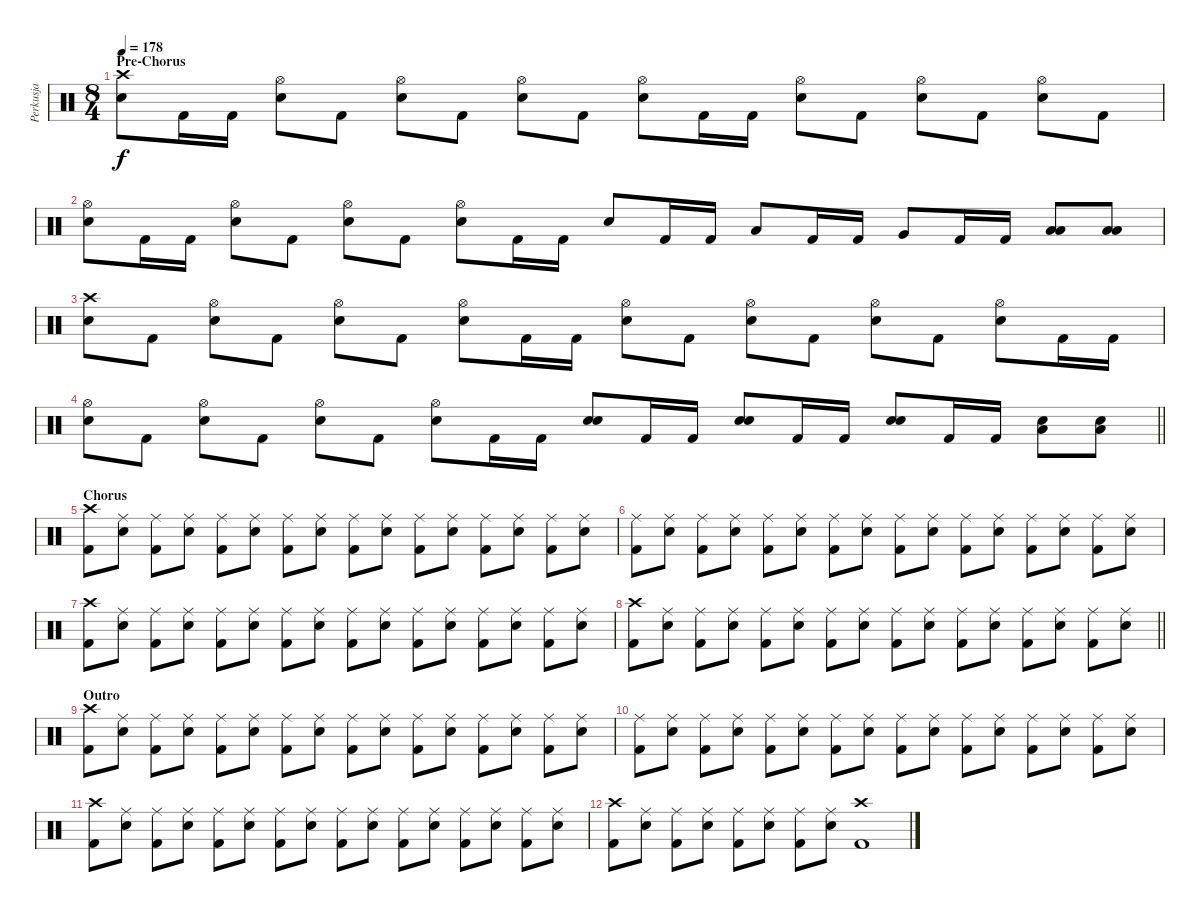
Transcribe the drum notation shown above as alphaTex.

\track ("Perkusja" "Perkusja") {instrument percussion}
\staff {score}
\articulation defaults
\ts (8 4)
\section ("" "Pre-Chorus")
\tempo 178
\clef neutral
\ks c
("Crash high (hit)" "Snare (hit) 2").8{dy f} "Kick (hit) 2".16 "Kick (hit) 2".16 ("Hi-Hat (open)" "Snare (hit) 2").8 "Kick (hit) 2".8 ("Hi-Hat (open)" "Snare (hit) 2").8 "Kick (hit) 2".8 ("Hi-Hat (open)" "Snare (hit) 2").8 "Kick (hit) 2".8 ("Hi-Hat (open)" "Snare (hit) 2").8 "Kick (hit) 2".16 "Kick (hit) 2".16 ("Hi-Hat (open)" "Snare (hit) 2").8 "Kick (hit) 2".8 ("Hi-Hat (open)" "Snare (hit) 2").8 "Kick (hit) 2".8 ("Hi-Hat (open)" "Snare (hit) 2").8 "Kick (hit) 2".8 |
("Hi-Hat (open)" "Snare (hit) 2").8 "Kick (hit) 2".16 "Kick (hit) 2".16 ("Hi-Hat (open)" "Snare (hit) 2").8 "Kick (hit) 2".8 ("Hi-Hat (open)" "Snare (hit) 2").8 "Kick (hit) 2".8 ("Hi-Hat (open)" "Snare (hit) 2").8 "Kick (hit) 2".16 "Kick (hit) 2".16 "Snare (hit) 2".8 "Kick (hit) 2".16 "Kick (hit) 2".16 "Low Tom (hit)".8 "Kick (hit) 2".16 "Kick (hit) 2".16 "Very Low Tom (hit)".8 "Kick (hit) 2".16 "Kick (hit) 2".16 ("Low Floor Tom (hit)" "Low Floor Tom (hit)").8 ("Low Floor Tom (hit)" "Low Floor Tom (hit)").8 |
("Crash high (hit)" "Snare (hit) 2").8 "Kick (hit) 2".8 ("Hi-Hat (open)" "Snare (hit) 2").8 "Kick (hit) 2".8 ("Hi-Hat (open)" "Snare (hit) 2").8 "Kick (hit) 2".8 ("Hi-Hat (open)" "Snare (hit) 2").8 "Kick (hit) 2".16 "Kick (hit) 2".16 ("Hi-Hat (open)" "Snare (hit) 2").8 "Kick (hit) 2".8 ("Hi-Hat (open)" "Snare (hit) 2").8 "Kick (hit) 2".8 ("Hi-Hat (open)" "Snare (hit) 2").8 "Kick (hit) 2".8 ("Hi-Hat (open)" "Snare (hit) 2").8 "Kick (hit) 2".16 "Kick (hit) 2".16 |
\barLineRight lightlight
("Hi-Hat (open)" "Snare (hit) 2").8 "Kick (hit) 2".8 ("Hi-Hat (open)" "Snare (hit) 2").8 "Kick (hit) 2".8 ("Hi-Hat (open)" "Snare (hit) 2").8 "Kick (hit) 2".8 ("Hi-Hat (open)" "Snare (hit) 2").8 "Kick (hit) 2".16 "Kick (hit) 2".16 ("Snare (hit) 2" "Snare (hit) 2").8 "Kick (hit) 2".16 "Kick (hit) 2".16 ("Snare (hit) 2" "Snare (hit) 2").8 "Kick (hit) 2".16 "Kick (hit) 2".16 ("Snare (hit) 2" "Snare (hit) 2").8 "Kick (hit) 2".16 "Kick (hit) 2".16 ("Low Tom (hit)" "Snare (hit) 2").8 ("Low Tom (hit)" "Snare (hit) 2").8 |
\section ("" "Chorus")
("Crash high (hit)" "Kick (hit) 2").8 ("Ride (middle)" "Snare (hit) 2").8 ("Ride (middle)" "Kick (hit) 2").8 ("Ride (middle)" "Snare (hit) 2").8 ("Ride (middle)" "Kick (hit) 2").8 ("Ride (middle)" "Snare (hit) 2").8 ("Ride (middle)" "Kick (hit) 2").8 ("Ride (middle)" "Snare (hit) 2").8 ("Ride (middle)" "Kick (hit) 2").8 ("Ride (middle)" "Snare (hit) 2").8 ("Ride (middle)" "Kick (hit) 2").8 ("Ride (middle)" "Snare (hit) 2").8 ("Ride (middle)" "Kick (hit) 2").8 ("Ride (middle)" "Snare (hit) 2").8 ("Ride (middle)" "Kick (hit) 2").8 ("Ride (middle)" "Snare (hit) 2").8 |
("Ride (middle)" "Kick (hit) 2").8 ("Ride (middle)" "Snare (hit) 2").8 ("Ride (middle)" "Kick (hit) 2").8 ("Ride (middle)" "Snare (hit) 2").8 ("Ride (middle)" "Kick (hit) 2").8 ("Ride (middle)" "Snare (hit) 2").8 ("Ride (middle)" "Kick (hit) 2").8 ("Ride (middle)" "Snare (hit) 2").8 ("Ride (middle)" "Kick (hit) 2").8 ("Ride (middle)" "Snare (hit) 2").8 ("Ride (middle)" "Kick (hit) 2").8 ("Ride (middle)" "Snare (hit) 2").8 ("Ride (middle)" "Kick (hit) 2").8 ("Ride (middle)" "Snare (hit) 2").8 ("Ride (middle)" "Kick (hit) 2").8 ("Ride (middle)" "Snare (hit) 2").8 |
("Crash high (hit)" "Kick (hit) 2").8 ("Ride (middle)" "Snare (hit) 2").8 ("Ride (middle)" "Kick (hit) 2").8 ("Ride (middle)" "Snare (hit) 2").8 ("Ride (middle)" "Kick (hit) 2").8 ("Ride (middle)" "Snare (hit) 2").8 ("Ride (middle)" "Kick (hit) 2").8 ("Ride (middle)" "Snare (hit) 2").8 ("Ride (middle)" "Kick (hit) 2").8 ("Ride (middle)" "Snare (hit) 2").8 ("Ride (middle)" "Kick (hit) 2").8 ("Ride (middle)" "Snare (hit) 2").8 ("Ride (middle)" "Kick (hit) 2").8 ("Ride (middle)" "Snare (hit) 2").8 ("Ride (middle)" "Kick (hit) 2").8 ("Ride (middle)" "Snare (hit) 2").8 |
\barLineRight lightlight
("Crash high (hit)" "Kick (hit) 2").8 ("Ride (middle)" "Snare (hit) 2").8 ("Ride (middle)" "Kick (hit) 2").8 ("Ride (middle)" "Snare (hit) 2").8 ("Ride (middle)" "Kick (hit) 2").8 ("Ride (middle)" "Snare (hit) 2").8 ("Ride (middle)" "Kick (hit) 2").8 ("Ride (middle)" "Snare (hit) 2").8 ("Ride (middle)" "Kick (hit) 2").8 ("Ride (middle)" "Snare (hit) 2").8 ("Ride (middle)" "Kick (hit) 2").8 ("Ride (middle)" "Snare (hit) 2").8 ("Ride (middle)" "Kick (hit) 2").8 ("Ride (middle)" "Snare (hit) 2").8 ("Ride (middle)" "Kick (hit) 2").8 ("Ride (middle)" "Snare (hit) 2").8 |
\section ("" "Outro")
("Crash high (hit)" "Kick (hit) 2").8 ("Ride (middle)" "Snare (hit) 2").8 ("Ride (middle)" "Kick (hit) 2").8 ("Ride (middle)" "Snare (hit) 2").8 ("Ride (middle)" "Kick (hit) 2").8 ("Ride (middle)" "Snare (hit) 2").8 ("Ride (middle)" "Kick (hit) 2").8 ("Ride (middle)" "Snare (hit) 2").8 ("Ride (middle)" "Kick (hit) 2").8 ("Ride (middle)" "Snare (hit) 2").8 ("Ride (middle)" "Kick (hit) 2").8 ("Ride (middle)" "Snare (hit) 2").8 ("Ride (middle)" "Kick (hit) 2").8 ("Ride (middle)" "Snare (hit) 2").8 ("Ride (middle)" "Kick (hit) 2").8 ("Ride (middle)" "Snare (hit) 2").8 |
("Ride (middle)" "Kick (hit) 2").8 ("Ride (middle)" "Snare (hit) 2").8 ("Ride (middle)" "Kick (hit) 2").8 ("Ride (middle)" "Snare (hit) 2").8 ("Ride (middle)" "Kick (hit) 2").8 ("Ride (middle)" "Snare (hit) 2").8 ("Ride (middle)" "Kick (hit) 2").8 ("Ride (middle)" "Snare (hit) 2").8 ("Ride (middle)" "Kick (hit) 2").8 ("Ride (middle)" "Snare (hit) 2").8 ("Ride (middle)" "Kick (hit) 2").8 ("Ride (middle)" "Snare (hit) 2").8 ("Ride (middle)" "Kick (hit) 2").8 ("Ride (middle)" "Snare (hit) 2").8 ("Ride (middle)" "Kick (hit) 2").8 ("Ride (middle)" "Snare (hit) 2").8 |
("Crash high (hit)" "Kick (hit) 2").8 ("Ride (middle)" "Snare (hit) 2").8 ("Ride (middle)" "Kick (hit) 2").8 ("Ride (middle)" "Snare (hit) 2").8 ("Ride (middle)" "Kick (hit) 2").8 ("Ride (middle)" "Snare (hit) 2").8 ("Ride (middle)" "Kick (hit) 2").8 ("Ride (middle)" "Snare (hit) 2").8 ("Ride (middle)" "Kick (hit) 2").8 ("Ride (middle)" "Snare (hit) 2").8 ("Ride (middle)" "Kick (hit) 2").8 ("Ride (middle)" "Snare (hit) 2").8 ("Ride (middle)" "Kick (hit) 2").8 ("Ride (middle)" "Snare (hit) 2").8 ("Ride (middle)" "Kick (hit) 2").8 ("Ride (middle)" "Snare (hit) 2").8 |
("Crash high (hit)" "Kick (hit) 2").8 ("Ride (middle)" "Snare (hit) 2").8 ("Ride (middle)" "Kick (hit) 2").8 ("Ride (middle)" "Snare (hit) 2").8 ("Ride (middle)" "Kick (hit) 2").8 ("Ride (middle)" "Snare (hit) 2").8 ("Ride (middle)" "Kick (hit) 2").8 ("Ride (middle)" "Snare (hit) 2").8 ("Crash high (hit)" "Kick (hit) 2").1
